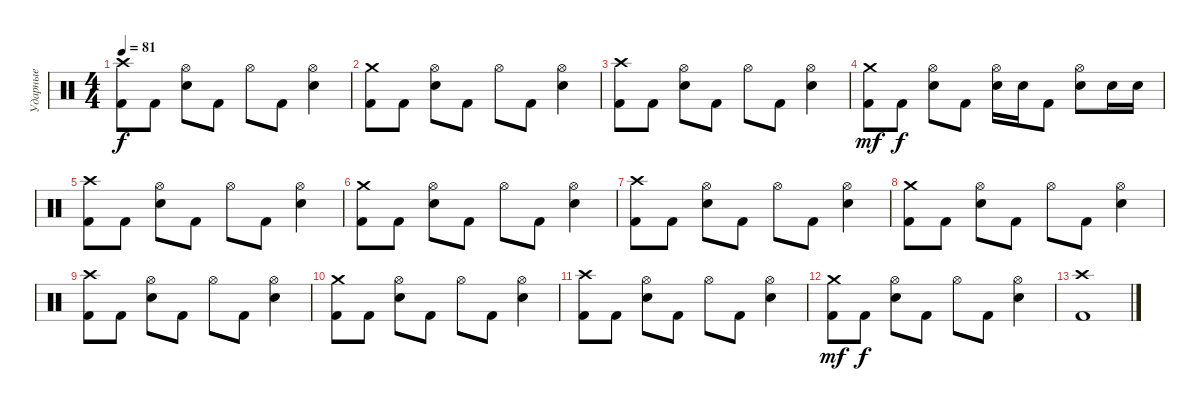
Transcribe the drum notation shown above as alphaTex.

\track ("Ударные" "Ударные") {instrument percussion}
\staff {score}
\articulation defaults
\ts (4 4)
\tempo 81
\clef neutral
\ks c
("Crash high (hit)" "Kick (hit) 2").8{dy f} "Kick (hit) 2".8 ("Hi-Hat (open)" "Electric Snare (hit)").8 "Kick (hit) 2".8 "Hi-Hat (open)".8 "Kick (hit) 2".8 ("Hi-Hat (open)" "Electric Snare (hit)").4 |
("Crash medium (hit)" "Kick (hit) 2").8 "Kick (hit) 2".8 ("Hi-Hat (open)" "Electric Snare (hit)").8 "Kick (hit) 2".8 "Hi-Hat (open)".8 "Kick (hit) 2".8 ("Hi-Hat (open)" "Electric Snare (hit)").4 |
("Crash high (hit)" "Kick (hit) 2").8 "Kick (hit) 2".8 ("Hi-Hat (open)" "Electric Snare (hit)").8 "Kick (hit) 2".8 "Hi-Hat (open)".8 "Kick (hit) 2".8 ("Hi-Hat (open)" "Electric Snare (hit)").4 |
("Crash medium (hit)" "Kick (hit) 2").8{dy mf} "Kick (hit) 2".8{dy f} ("Hi-Hat (open)" "Electric Snare (hit)").8 "Kick (hit) 2".8 ("Hi-Hat (open)" "Electric Snare (hit)").16 "Electric Snare (hit)".16 "Kick (hit) 2".8 ("Hi-Hat (open)" "Electric Snare (hit)").8 "Electric Snare (hit)".16 "Electric Snare (hit)".16 |
("Crash high (hit)" "Kick (hit) 2").8 "Kick (hit) 2".8 ("Hi-Hat (open)" "Electric Snare (hit)").8 "Kick (hit) 2".8 "Hi-Hat (open)".8 "Kick (hit) 2".8 ("Hi-Hat (open)" "Electric Snare (hit)").4 |
("Crash medium (hit)" "Kick (hit) 2").8 "Kick (hit) 2".8 ("Hi-Hat (open)" "Electric Snare (hit)").8 "Kick (hit) 2".8 "Hi-Hat (open)".8 "Kick (hit) 2".8 ("Hi-Hat (open)" "Electric Snare (hit)").4 |
("Crash high (hit)" "Kick (hit) 2").8 "Kick (hit) 2".8 ("Hi-Hat (open)" "Electric Snare (hit)").8 "Kick (hit) 2".8 "Hi-Hat (open)".8 "Kick (hit) 2".8 ("Hi-Hat (open)" "Electric Snare (hit)").4 |
("Crash medium (hit)" "Kick (hit) 2").8 "Kick (hit) 2".8 ("Hi-Hat (open)" "Electric Snare (hit)").8 "Kick (hit) 2".8 "Hi-Hat (open)".8 "Kick (hit) 2".8 ("Hi-Hat (open)" "Electric Snare (hit)").4 |
("Crash high (hit)" "Kick (hit) 2").8 "Kick (hit) 2".8 ("Hi-Hat (open)" "Electric Snare (hit)").8 "Kick (hit) 2".8 "Hi-Hat (open)".8 "Kick (hit) 2".8 ("Hi-Hat (open)" "Electric Snare (hit)").4 |
("Crash medium (hit)" "Kick (hit) 2").8 "Kick (hit) 2".8 ("Hi-Hat (open)" "Electric Snare (hit)").8 "Kick (hit) 2".8 "Hi-Hat (open)".8 "Kick (hit) 2".8 ("Hi-Hat (open)" "Electric Snare (hit)").4 |
("Crash high (hit)" "Kick (hit) 2").8 "Kick (hit) 2".8 ("Hi-Hat (open)" "Electric Snare (hit)").8 "Kick (hit) 2".8 "Hi-Hat (open)".8 "Kick (hit) 2".8 ("Hi-Hat (open)" "Electric Snare (hit)").4 |
("Crash medium (hit)" "Kick (hit) 2").8{dy mf} "Kick (hit) 2".8{dy f} ("Hi-Hat (open)" "Electric Snare (hit)").8 "Kick (hit) 2".8 "Hi-Hat (open)".8 "Kick (hit) 2".8 ("Hi-Hat (open)" "Electric Snare (hit)").4 |
("Crash high (hit)" "Kick (hit) 2").1
